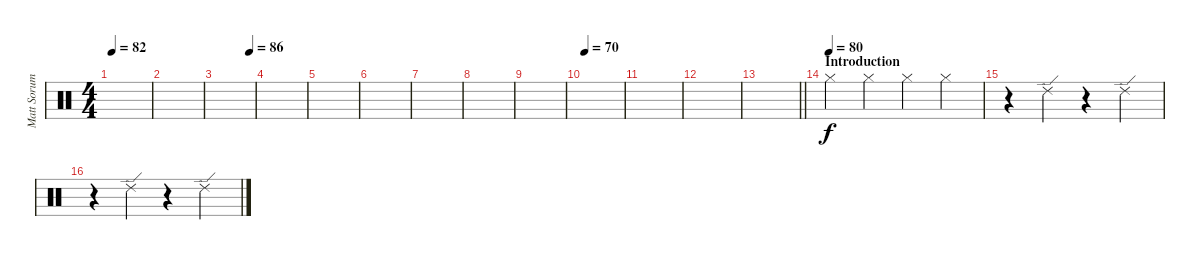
\track ("Matt Sorum" "Matt Sorum") {instrument percussion}
\staff {score}
\articulation defaults
\ts (4 4)
\tempo 82
\clef neutral
\ks c
|
|
\tempo (86 0.875)
|
|
|
|
|
|
|
\tempo 70
|
|
|
\barLineRight lightlight
|
\section ("" "Introduction")
\tempo (80)
"Hi-Hat (closed)".4 "Hi-Hat (closed)".4 "Hi-Hat (closed)".4 "Hi-Hat (closed)".4 |
r.4 "Ride (edge) 2".4 r.4 "Ride (edge) 2".4 |
r.4 "Ride (edge) 2".4 r.4 "Ride (edge) 2".4
